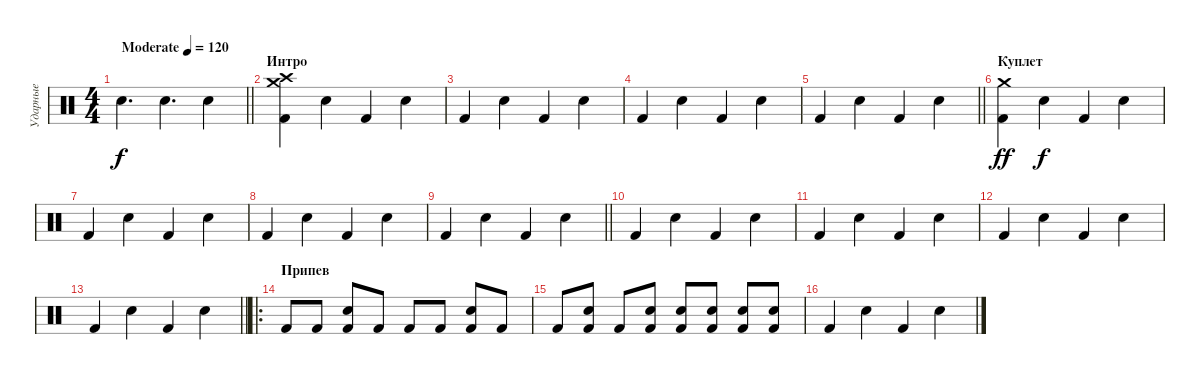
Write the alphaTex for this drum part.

\track ("Ударные" "Ударные") {instrument percussion}
\staff {score}
\articulation defaults
\ts (4 4)
\tempo (120 "Moderate")
\tempo 140
\tempo (120 "Moderate")
\clef neutral
\barLineRight lightlight
\ks c "Snare (hit) 2".4{d dy f} "Snare (hit) 2".4{d} "Snare (hit) 2".4
|
\section ("" "Интро")
("Crash high (hit)" "Crash medium (hit)" "Kick (hit) 2").4 "Snare (hit) 2".4 "Kick (hit) 2".4 "Snare (hit) 2".4 |
"Kick (hit) 2".4 "Snare (hit) 2".4 "Kick (hit) 2".4 "Snare (hit) 2".4 |
"Kick (hit) 2".4 "Snare (hit) 2".4 "Kick (hit) 2".4 "Snare (hit) 2".4 |
\barLineRight lightlight "Kick (hit) 2".4 "Snare (hit) 2".4 "Kick (hit) 2".4 "Snare (hit) 2".4
|
\section ("" "Куплет")
("Crash medium (hit)" "Kick (hit) 2").4{dy ff} "Snare (hit) 2".4{dy f} "Kick (hit) 2".4 "Snare (hit) 2".4 |
"Kick (hit) 2".4 "Snare (hit) 2".4 "Kick (hit) 2".4 "Snare (hit) 2".4 |
"Kick (hit) 2".4 "Snare (hit) 2".4 "Kick (hit) 2".4 "Snare (hit) 2".4 |
\barLineRight lightlight "Kick (hit) 2".4 "Snare (hit) 2".4 "Kick (hit) 2".4 "Snare (hit) 2".4
|
"Kick (hit) 2".4 "Snare (hit) 2".4 "Kick (hit) 2".4 "Snare (hit) 2".4 |
"Kick (hit) 2".4 "Snare (hit) 2".4 "Kick (hit) 2".4 "Snare (hit) 2".4 |
"Kick (hit) 2".4 "Snare (hit) 2".4 "Kick (hit) 2".4 "Snare (hit) 2".4 |
\barLineRight lightlight "Kick (hit) 2".4 "Snare (hit) 2".4 "Kick (hit) 2".4 "Snare (hit) 2".4
|
\ro
\section ("" "Припев")
"Kick (hit) 2".8 "Kick (hit) 2".8 ("Snare (hit) 2" "Kick (hit) 2").8 "Kick (hit) 2".8 "Kick (hit) 2".8 "Kick (hit) 2".8 ("Snare (hit) 2" "Kick (hit) 2").8 "Kick (hit) 2".8 |
"Kick (hit) 2".8 ("Snare (hit) 2" "Kick (hit) 2").8 "Kick (hit) 2".8 ("Snare (hit) 2" "Kick (hit) 2").8 ("Snare (hit) 2" "Kick (hit) 2").8 ("Snare (hit) 2" "Kick (hit) 2").8 ("Snare (hit) 2" "Kick (hit) 2").8 ("Snare (hit) 2" "Kick (hit) 2").8 |
"Kick (hit) 2".4 "Snare (hit) 2".4 "Kick (hit) 2".4 "Snare (hit) 2".4
